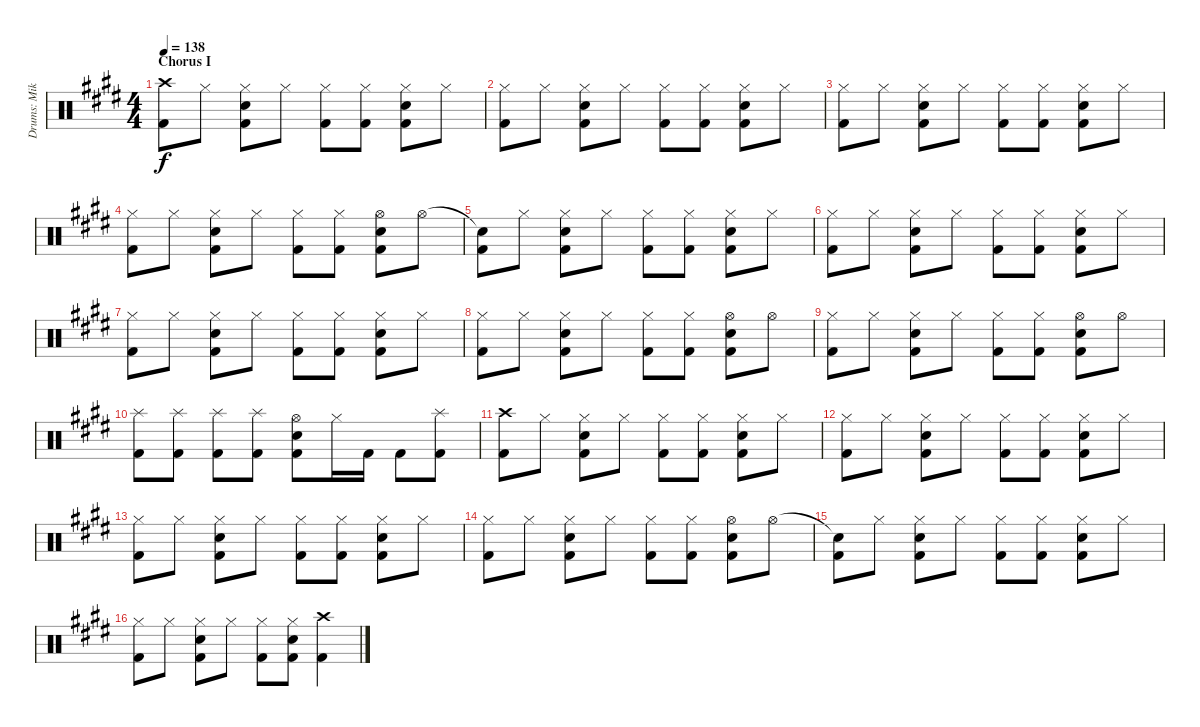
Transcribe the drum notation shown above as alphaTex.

\track ("Drums: Mike" "Drums: Mik") {instrument percussion}
\staff {score}
\articulation defaults
\ts (4 4)
\section ("" "Chorus I")
\tempo 138
\clef neutral
\ks e
("Crash high (hit)" "Kick (hit) 2").8{dy f} "Hi-Hat (closed)".8 ("Hi-Hat (closed)" "Electric Snare (hit)" "Kick (hit) 2").8 "Hi-Hat (closed)".8 ("Hi-Hat (closed)" "Kick (hit) 2").8 ("Hi-Hat (closed)" "Kick (hit) 2").8 ("Hi-Hat (closed)" "Electric Snare (hit)" "Kick (hit) 2").8 "Hi-Hat (closed)".8 |
("Hi-Hat (closed)" "Kick (hit) 2").8 "Hi-Hat (closed)".8 ("Hi-Hat (closed)" "Electric Snare (hit)" "Kick (hit) 2").8 "Hi-Hat (closed)".8 ("Hi-Hat (closed)" "Kick (hit) 2").8 ("Hi-Hat (closed)" "Kick (hit) 2").8 ("Hi-Hat (closed)" "Electric Snare (hit)" "Kick (hit) 2").8 "Hi-Hat (closed)".8 |
("Hi-Hat (closed)" "Kick (hit) 2").8 "Hi-Hat (closed)".8 ("Hi-Hat (closed)" "Electric Snare (hit)" "Kick (hit) 2").8 "Hi-Hat (closed)".8 ("Hi-Hat (closed)" "Kick (hit) 2").8 ("Hi-Hat (closed)" "Kick (hit) 2").8 ("Hi-Hat (closed)" "Electric Snare (hit)" "Kick (hit) 2").8 "Hi-Hat (closed)".8 |
("Hi-Hat (closed)" "Kick (hit) 2").8 "Hi-Hat (closed)".8 ("Hi-Hat (closed)" "Electric Snare (hit)" "Kick (hit) 2").8 "Hi-Hat (closed)".8 ("Hi-Hat (closed)" "Kick (hit) 2").8 ("Hi-Hat (closed)" "Kick (hit) 2").8 ("Hi-Hat (open)" "Electric Snare (hit)" "Kick (hit) 2").8 "Hi-Hat (open)".8 |
("Snare (hit)"{t} "Kick (hit) 2").8 "Hi-Hat (closed)".8 ("Hi-Hat (closed)" "Electric Snare (hit)" "Kick (hit) 2").8 "Hi-Hat (closed)".8 ("Hi-Hat (closed)" "Kick (hit) 2").8 ("Hi-Hat (closed)" "Kick (hit) 2").8 ("Hi-Hat (closed)" "Electric Snare (hit)" "Kick (hit) 2").8 "Hi-Hat (closed)".8 |
("Hi-Hat (closed)" "Kick (hit) 2").8 "Hi-Hat (closed)".8 ("Hi-Hat (closed)" "Electric Snare (hit)" "Kick (hit) 2").8 "Hi-Hat (closed)".8 ("Hi-Hat (closed)" "Kick (hit) 2").8 ("Hi-Hat (closed)" "Kick (hit) 2").8 ("Hi-Hat (closed)" "Electric Snare (hit)" "Kick (hit) 2").8 "Hi-Hat (closed)".8 |
("Hi-Hat (closed)" "Kick (hit) 2").8 "Hi-Hat (closed)".8 ("Hi-Hat (closed)" "Electric Snare (hit)" "Kick (hit) 2").8 "Hi-Hat (closed)".8 ("Hi-Hat (closed)" "Kick (hit) 2").8 ("Hi-Hat (closed)" "Kick (hit) 2").8 ("Hi-Hat (closed)" "Electric Snare (hit)" "Kick (hit) 2").8 "Hi-Hat (closed)".8 |
("Hi-Hat (closed)" "Kick (hit) 2").8 "Hi-Hat (closed)".8 ("Hi-Hat (closed)" "Electric Snare (hit)" "Kick (hit) 2").8 "Hi-Hat (closed)".8 ("Hi-Hat (closed)" "Kick (hit) 2").8 ("Hi-Hat (closed)" "Kick (hit) 2").8 ("Hi-Hat (open)" "Electric Snare (hit)" "Kick (hit) 2").8 "Hi-Hat (open)".8 |
("Hi-Hat (closed)" "Kick (hit) 2").8 "Hi-Hat (closed)".8 ("Hi-Hat (closed)" "Electric Snare (hit)" "Kick (hit) 2").8 "Hi-Hat (closed)".8 ("Hi-Hat (closed)" "Kick (hit) 2").8 ("Hi-Hat (closed)" "Kick (hit) 2").8 ("Hi-Hat (open)" "Electric Snare (hit)" "Kick (hit) 2").8 "Hi-Hat (open)".8 |
("Splash (hit)" "Kick (hit) 2").8 ("Splash (hit)" "Kick (hit) 2").8 ("Splash (hit)" "Kick (hit) 2").8 ("Splash (hit)" "Kick (hit) 2").8 ("Hi-Hat (open)" "Snare (hit) 2" "Kick (hit) 2").8 "Hi-Hat (closed)".16 "Kick (hit) 2".16 "Kick (hit) 2".8 ("Splash (hit)" "Kick (hit) 2").8 |
("Crash high (hit)" "Kick (hit) 2").8 "Hi-Hat (closed)".8 ("Hi-Hat (closed)" "Electric Snare (hit)" "Kick (hit) 2").8 "Hi-Hat (closed)".8 ("Hi-Hat (closed)" "Kick (hit) 2").8 ("Hi-Hat (closed)" "Kick (hit) 2").8 ("Hi-Hat (closed)" "Electric Snare (hit)" "Kick (hit) 2").8 "Hi-Hat (closed)".8 |
("Hi-Hat (closed)" "Kick (hit) 2").8 "Hi-Hat (closed)".8 ("Hi-Hat (closed)" "Electric Snare (hit)" "Kick (hit) 2").8 "Hi-Hat (closed)".8 ("Hi-Hat (closed)" "Kick (hit) 2").8 ("Hi-Hat (closed)" "Kick (hit) 2").8 ("Hi-Hat (closed)" "Electric Snare (hit)" "Kick (hit) 2").8 "Hi-Hat (closed)".8 |
("Hi-Hat (closed)" "Kick (hit) 2").8 "Hi-Hat (closed)".8 ("Hi-Hat (closed)" "Electric Snare (hit)" "Kick (hit) 2").8 "Hi-Hat (closed)".8 ("Hi-Hat (closed)" "Kick (hit) 2").8 ("Hi-Hat (closed)" "Kick (hit) 2").8 ("Hi-Hat (closed)" "Electric Snare (hit)" "Kick (hit) 2").8 "Hi-Hat (closed)".8 |
("Hi-Hat (closed)" "Kick (hit) 2").8 "Hi-Hat (closed)".8 ("Hi-Hat (closed)" "Electric Snare (hit)" "Kick (hit) 2").8 "Hi-Hat (closed)".8 ("Hi-Hat (closed)" "Kick (hit) 2").8 ("Hi-Hat (closed)" "Kick (hit) 2").8 ("Hi-Hat (open)" "Electric Snare (hit)" "Kick (hit) 2").8 "Hi-Hat (open)".8 |
("Snare (hit)"{t} "Kick (hit) 2").8 "Hi-Hat (closed)".8 ("Hi-Hat (closed)" "Electric Snare (hit)" "Kick (hit) 2").8 "Hi-Hat (closed)".8 ("Hi-Hat (closed)" "Kick (hit) 2").8 ("Hi-Hat (closed)" "Kick (hit) 2").8 ("Hi-Hat (closed)" "Electric Snare (hit)" "Kick (hit) 2").8 "Hi-Hat (closed)".8 |
("Hi-Hat (closed)" "Kick (hit) 2").8 "Hi-Hat (closed)".8 ("Hi-Hat (closed)" "Electric Snare (hit)" "Kick (hit) 2").8 "Hi-Hat (closed)".8 ("Hi-Hat (closed)" "Kick (hit) 2").8 ("Hi-Hat (closed)" "Electric Snare (hit)" "Kick (hit) 2").8 ("Crash high (hit)" "Kick (hit) 2").4
